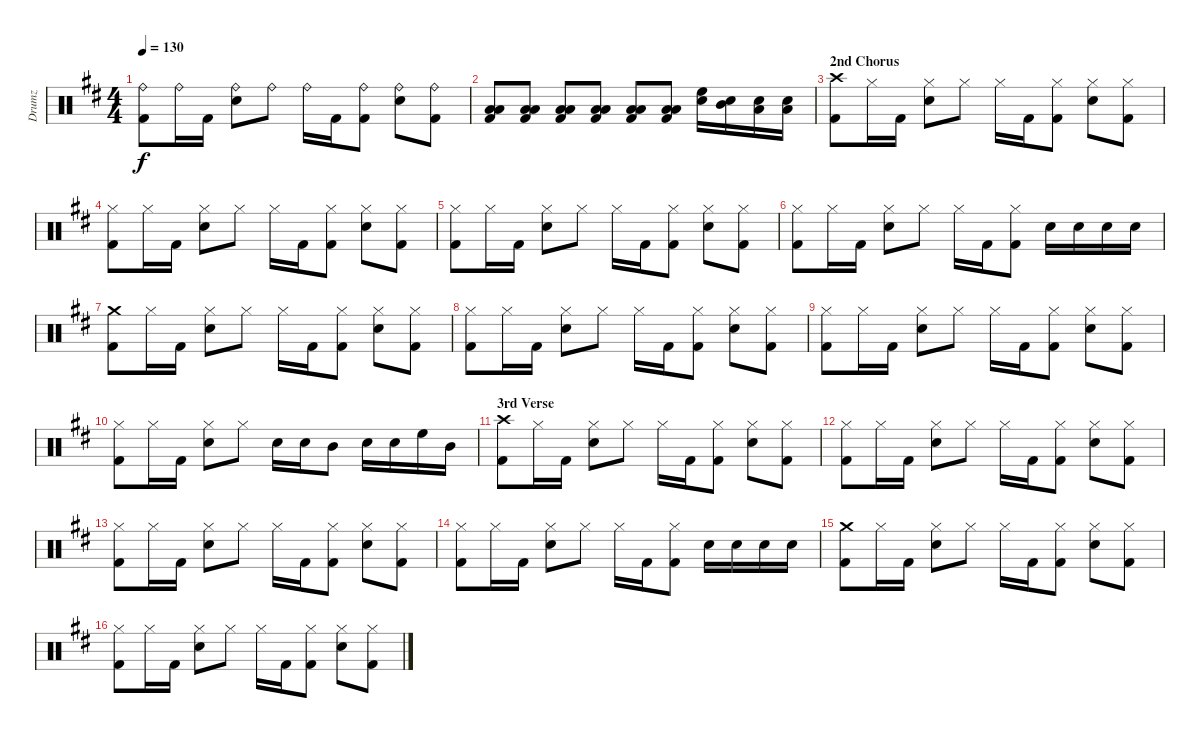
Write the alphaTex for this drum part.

\track ("Drumz" "Drumz") {instrument percussion}
\staff {score}
\articulation defaults
\ts (4 4)
\tempo 130
\clef neutral
\ks d
("Ride (bell)" "Kick (hit) 2").8{dy f} "Ride (bell)".16 "Kick (hit) 2".16 ("Ride (bell)" "Snare (hit) 2").8 "Ride (bell)".8 "Ride (bell)".16 "Kick (hit) 2".16 ("Ride (bell)" "Kick (hit) 2").8 ("Ride (bell)" "Snare (hit) 2").8 ("Ride (bell)" "Kick (hit) 2").8 |
("Low Tom (hit)" "Low Floor Tom (hit)" "Kick (hit) 2").8 ("Low Tom (hit)" "Low Floor Tom (hit)" "Kick (hit) 2").8 ("Low Tom (hit)" "Low Floor Tom (hit)" "Kick (hit) 2").8 ("Low Tom (hit)" "Low Floor Tom (hit)" "Kick (hit) 2").8 ("Low Tom (hit)" "Low Floor Tom (hit)" "Kick (hit) 2").8 ("Low Tom (hit)" "Low Floor Tom (hit)" "Kick (hit) 2").8 ("Snare (hit) 2" "High Floor Tom (hit)").16 ("Snare (hit) 2" "Mid Tom (hit)").16 ("Snare (hit) 2" "Low Tom (hit)").16 ("Snare (hit) 2" "Low Floor Tom (hit)").16 |
\section ("" "2nd Chorus")
("Crash high (hit)" "Kick (hit) 2").8 "Hi-Hat (closed)".16 "Kick (hit) 2".16 ("Hi-Hat (closed)" "Snare (hit) 2").8 "Hi-Hat (closed)".8 "Hi-Hat (closed)".16 "Kick (hit) 2".16 ("Hi-Hat (closed)" "Kick (hit) 2").8 ("Hi-Hat (closed)" "Snare (hit) 2").8 ("Hi-Hat (closed)" "Kick (hit) 2").8 |
("Hi-Hat (closed)" "Kick (hit) 2").8 "Hi-Hat (closed)".16 "Kick (hit) 2".16 ("Hi-Hat (closed)" "Snare (hit) 2").8 "Hi-Hat (closed)".8 "Hi-Hat (closed)".16 "Kick (hit) 2".16 ("Hi-Hat (closed)" "Kick (hit) 2").8 ("Hi-Hat (closed)" "Snare (hit) 2").8 ("Hi-Hat (closed)" "Kick (hit) 2").8 |
("Hi-Hat (closed)" "Kick (hit) 2").8 "Hi-Hat (closed)".16 "Kick (hit) 2".16 ("Hi-Hat (closed)" "Snare (hit) 2").8 "Hi-Hat (closed)".8 "Hi-Hat (closed)".16 "Kick (hit) 2".16 ("Hi-Hat (closed)" "Kick (hit) 2").8 ("Hi-Hat (closed)" "Snare (hit) 2").8 ("Hi-Hat (closed)" "Kick (hit) 2").8 |
("Hi-Hat (closed)" "Kick (hit) 2").8 "Hi-Hat (closed)".16 "Kick (hit) 2".16 ("Hi-Hat (closed)" "Snare (hit) 2").8 "Hi-Hat (closed)".8 "Hi-Hat (closed)".16 "Kick (hit) 2".16 ("Hi-Hat (closed)" "Kick (hit) 2").8 "Snare (hit) 2".16 "Snare (hit) 2".16 "Snare (hit) 2".16 "Snare (hit) 2".16 |
("Crash medium (hit)" "Kick (hit) 2").8 "Hi-Hat (closed)".16 "Kick (hit) 2".16 ("Hi-Hat (closed)" "Snare (hit) 2").8 "Hi-Hat (closed)".8 "Hi-Hat (closed)".16 "Kick (hit) 2".16 ("Hi-Hat (closed)" "Kick (hit) 2").8 ("Hi-Hat (closed)" "Snare (hit) 2").8 ("Hi-Hat (closed)" "Kick (hit) 2").8 |
("Hi-Hat (closed)" "Kick (hit) 2").8 "Hi-Hat (closed)".16 "Kick (hit) 2".16 ("Hi-Hat (closed)" "Snare (hit) 2").8 "Hi-Hat (closed)".8 "Hi-Hat (closed)".16 "Kick (hit) 2".16 ("Hi-Hat (closed)" "Kick (hit) 2").8 ("Hi-Hat (closed)" "Snare (hit) 2").8 ("Hi-Hat (closed)" "Kick (hit) 2").8 |
("Hi-Hat (closed)" "Kick (hit) 2").8 "Hi-Hat (closed)".16 "Kick (hit) 2".16 ("Hi-Hat (closed)" "Snare (hit) 2").8 "Hi-Hat (closed)".8 "Hi-Hat (closed)".16 "Kick (hit) 2".16 ("Hi-Hat (closed)" "Kick (hit) 2").8 ("Hi-Hat (closed)" "Snare (hit) 2").8 ("Hi-Hat (closed)" "Kick (hit) 2").8 |
("Hi-Hat (closed)" "Kick (hit) 2").8 "Hi-Hat (closed)".16 "Kick (hit) 2".16 ("Hi-Hat (closed)" "Snare (hit) 2").8 "Hi-Hat (closed)".8 "Snare (hit) 2".16 "Snare (hit) 2".16 "Mid Tom (hit)".8 "Snare (hit) 2".16 "Snare (hit) 2".16 "High Floor Tom (hit)".16 "Mid Tom (hit)".16 |
\section ("" "3rd Verse")
("Crash high (hit)" "Kick (hit) 2").8 "Hi-Hat (closed)".16 "Kick (hit) 2".16 ("Hi-Hat (closed)" "Snare (hit) 2").8 "Hi-Hat (closed)".8 "Hi-Hat (closed)".16 "Kick (hit) 2".16 ("Hi-Hat (closed)" "Kick (hit) 2").8 ("Hi-Hat (closed)" "Snare (hit) 2").8 ("Hi-Hat (closed)" "Kick (hit) 2").8 |
("Hi-Hat (closed)" "Kick (hit) 2").8 "Hi-Hat (closed)".16 "Kick (hit) 2".16 ("Hi-Hat (closed)" "Snare (hit) 2").8 "Hi-Hat (closed)".8 "Hi-Hat (closed)".16 "Kick (hit) 2".16 ("Hi-Hat (closed)" "Kick (hit) 2").8 ("Hi-Hat (closed)" "Snare (hit) 2").8 ("Hi-Hat (closed)" "Kick (hit) 2").8 |
("Hi-Hat (closed)" "Kick (hit) 2").8 "Hi-Hat (closed)".16 "Kick (hit) 2".16 ("Hi-Hat (closed)" "Snare (hit) 2").8 "Hi-Hat (closed)".8 "Hi-Hat (closed)".16 "Kick (hit) 2".16 ("Hi-Hat (closed)" "Kick (hit) 2").8 ("Hi-Hat (closed)" "Snare (hit) 2").8 ("Hi-Hat (closed)" "Kick (hit) 2").8 |
("Hi-Hat (closed)" "Kick (hit) 2").8 "Hi-Hat (closed)".16 "Kick (hit) 2".16 ("Hi-Hat (closed)" "Snare (hit) 2").8 "Hi-Hat (closed)".8 "Hi-Hat (closed)".16 "Kick (hit) 2".16 ("Hi-Hat (closed)" "Kick (hit) 2").8 "Snare (hit) 2".16 "Snare (hit) 2".16 "Snare (hit) 2".16 "Snare (hit) 2".16 |
("Crash medium (hit)" "Kick (hit) 2").8 "Hi-Hat (closed)".16 "Kick (hit) 2".16 ("Hi-Hat (closed)" "Snare (hit) 2").8 "Hi-Hat (closed)".8 "Hi-Hat (closed)".16 "Kick (hit) 2".16 ("Hi-Hat (closed)" "Kick (hit) 2").8 ("Hi-Hat (closed)" "Snare (hit) 2").8 ("Hi-Hat (closed)" "Kick (hit) 2").8 |
("Hi-Hat (closed)" "Kick (hit) 2").8 "Hi-Hat (closed)".16 "Kick (hit) 2".16 ("Hi-Hat (closed)" "Snare (hit) 2").8 "Hi-Hat (closed)".8 "Hi-Hat (closed)".16 "Kick (hit) 2".16 ("Hi-Hat (closed)" "Kick (hit) 2").8 ("Hi-Hat (closed)" "Snare (hit) 2").8 ("Hi-Hat (closed)" "Kick (hit) 2").8
